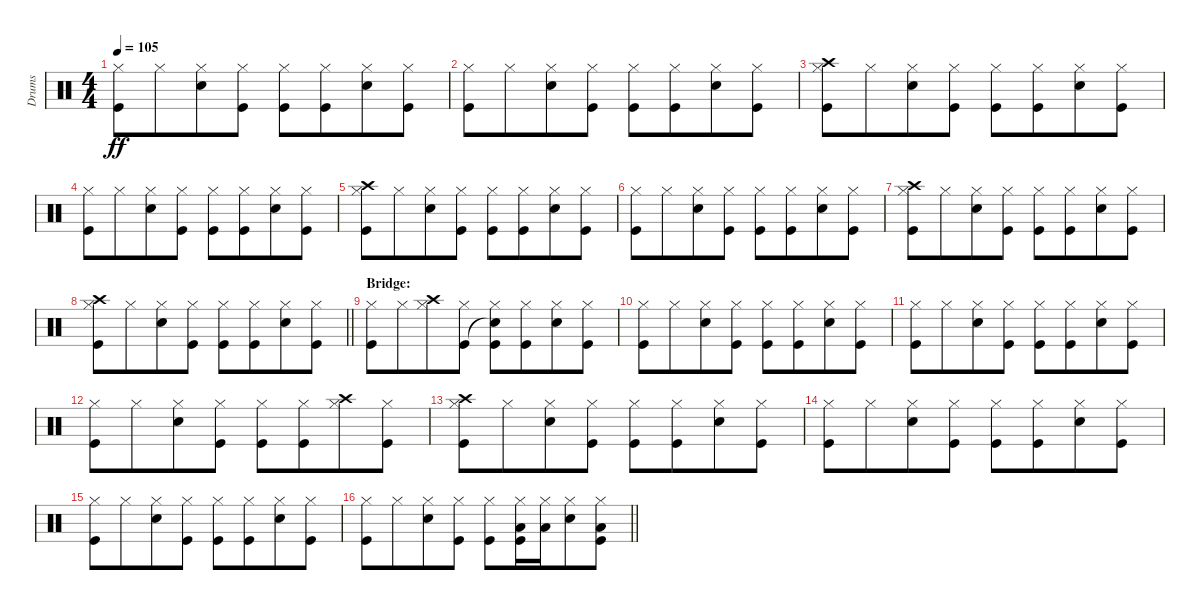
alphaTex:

\track ("Drums" "Drums") {instrument percussion}
\staff {score}
\articulation defaults
\ts (4 4)
\tempo 105
\clef neutral
\ks c
("Hi-Hat (closed)" "Kick (hit)").8{dy ff} "Hi-Hat (closed)".8{beam merge} ("Hi-Hat (closed)" "Snare (hit) 2").8 ("Hi-Hat (closed)" "Kick (hit)").8 ("Hi-Hat (closed)" "Kick (hit)").8 ("Hi-Hat (closed)" "Kick (hit)").8{beam merge} ("Hi-Hat (closed)" "Snare (hit) 2").8 ("Hi-Hat (closed)" "Kick (hit)").8 |
("Hi-Hat (closed)" "Kick (hit)").8 "Hi-Hat (closed)".8{beam merge} ("Hi-Hat (closed)" "Snare (hit) 2").8 ("Hi-Hat (closed)" "Kick (hit)").8 ("Hi-Hat (closed)" "Kick (hit)").8 ("Hi-Hat (closed)" "Kick (hit)").8{beam merge} ("Hi-Hat (closed)" "Snare (hit) 2").8 ("Hi-Hat (closed)" "Kick (hit)").8 |
("Hi-Hat (closed)" "Crash high (hit)" "Kick (hit)").8 "Hi-Hat (closed)".8{beam merge} ("Hi-Hat (closed)" "Snare (hit) 2").8 ("Hi-Hat (closed)" "Kick (hit)").8 ("Hi-Hat (closed)" "Kick (hit)").8 ("Hi-Hat (closed)" "Kick (hit)").8{beam merge} ("Hi-Hat (closed)" "Snare (hit) 2").8 ("Hi-Hat (closed)" "Kick (hit)").8 |
("Hi-Hat (closed)" "Kick (hit)").8 "Hi-Hat (closed)".8{beam merge} ("Hi-Hat (closed)" "Snare (hit) 2").8 ("Hi-Hat (closed)" "Kick (hit)").8 ("Hi-Hat (closed)" "Kick (hit)").8 ("Hi-Hat (closed)" "Kick (hit)").8{beam merge} ("Hi-Hat (closed)" "Snare (hit) 2").8 ("Hi-Hat (closed)" "Kick (hit)").8 |
("Hi-Hat (closed)" "Crash high (hit)" "Kick (hit)").8 "Hi-Hat (closed)".8{beam merge} ("Hi-Hat (closed)" "Snare (hit) 2").8 ("Hi-Hat (closed)" "Kick (hit)").8 ("Hi-Hat (closed)" "Kick (hit)").8 ("Hi-Hat (closed)" "Kick (hit)").8{beam merge} ("Hi-Hat (closed)" "Snare (hit) 2").8 ("Hi-Hat (closed)" "Kick (hit)").8 |
("Hi-Hat (closed)" "Kick (hit)").8 "Hi-Hat (closed)".8{beam merge} ("Hi-Hat (closed)" "Snare (hit) 2").8 ("Hi-Hat (closed)" "Kick (hit)").8 ("Hi-Hat (closed)" "Kick (hit)").8 ("Hi-Hat (closed)" "Kick (hit)").8{beam merge} ("Hi-Hat (closed)" "Snare (hit) 2").8 ("Hi-Hat (closed)" "Kick (hit)").8 |
("Hi-Hat (closed)" "Crash high (hit)" "Kick (hit)").8 "Hi-Hat (closed)".8{beam merge} ("Hi-Hat (closed)" "Snare (hit) 2").8 ("Hi-Hat (closed)" "Kick (hit)").8 ("Hi-Hat (closed)" "Kick (hit)").8 ("Hi-Hat (closed)" "Kick (hit)").8{beam merge} ("Hi-Hat (closed)" "Snare (hit) 2").8 ("Hi-Hat (closed)" "Kick (hit)").8 |
\barLineRight lightlight
("Hi-Hat (closed)" "Crash high (hit)" "Kick (hit)").8 "Hi-Hat (closed)".8{beam merge} ("Hi-Hat (closed)" "Snare (hit) 2").8 ("Hi-Hat (closed)" "Kick (hit)").8 ("Hi-Hat (closed)" "Kick (hit)").8 ("Hi-Hat (closed)" "Kick (hit)").8{beam merge} ("Hi-Hat (closed)" "Snare (hit) 2").8 ("Hi-Hat (closed)" "Kick (hit)").8 |
\section ("" "Bridge:")
("Hi-Hat (closed)" "Kick (hit)").8 "Hi-Hat (closed)".8{beam merge} ("Hi-Hat (closed)" "Crash high (hit)").8 ("Hi-Hat (closed)" "Kick (hit)").8 ("Hi-Hat (closed)" "Snare (hit)"{t} "Kick (hit)").8 ("Hi-Hat (closed)" "Kick (hit)").8{beam merge} ("Hi-Hat (closed)" "Snare (hit) 2").8 ("Hi-Hat (closed)" "Kick (hit)").8 |
("Hi-Hat (closed)" "Kick (hit)").8 "Hi-Hat (closed)".8{beam merge} ("Hi-Hat (closed)" "Snare (hit) 2").8 ("Hi-Hat (closed)" "Kick (hit)").8 ("Hi-Hat (closed)" "Kick (hit)").8 ("Hi-Hat (closed)" "Kick (hit)").8{beam merge} ("Hi-Hat (closed)" "Snare (hit) 2").8 ("Hi-Hat (closed)" "Kick (hit)").8 |
("Hi-Hat (closed)" "Kick (hit)").8 "Hi-Hat (closed)".8{beam merge} ("Hi-Hat (closed)" "Snare (hit) 2").8 ("Hi-Hat (closed)" "Kick (hit)").8 ("Hi-Hat (closed)" "Kick (hit)").8 ("Hi-Hat (closed)" "Kick (hit)").8{beam merge} ("Hi-Hat (closed)" "Snare (hit) 2").8 ("Hi-Hat (closed)" "Kick (hit)").8 |
("Hi-Hat (closed)" "Kick (hit)").8 "Hi-Hat (closed)".8{beam merge} ("Hi-Hat (closed)" "Snare (hit) 2").8 ("Hi-Hat (closed)" "Kick (hit)").8 ("Hi-Hat (closed)" "Kick (hit)").8 ("Hi-Hat (closed)" "Kick (hit)").8{beam merge} ("Hi-Hat (closed)" "Crash high (hit)").8 ("Hi-Hat (closed)" "Kick (hit)").8 |
("Hi-Hat (closed)" "Crash high (hit)" "Kick (hit)").8 "Hi-Hat (closed)".8{beam merge} ("Hi-Hat (closed)" "Snare (hit) 2").8 ("Hi-Hat (closed)" "Kick (hit)").8 ("Hi-Hat (closed)" "Kick (hit)").8 ("Hi-Hat (closed)" "Kick (hit)").8{beam merge} ("Hi-Hat (closed)" "Snare (hit) 2").8 ("Hi-Hat (closed)" "Kick (hit)").8 |
("Hi-Hat (closed)" "Kick (hit)").8 "Hi-Hat (closed)".8{beam merge} ("Hi-Hat (closed)" "Snare (hit) 2").8 ("Hi-Hat (closed)" "Kick (hit)").8 ("Hi-Hat (closed)" "Kick (hit)").8 ("Hi-Hat (closed)" "Kick (hit)").8{beam merge} ("Hi-Hat (closed)" "Snare (hit) 2").8 ("Hi-Hat (closed)" "Kick (hit)").8 |
("Hi-Hat (closed)" "Kick (hit)").8 "Hi-Hat (closed)".8{beam merge} ("Hi-Hat (closed)" "Snare (hit) 2").8 ("Hi-Hat (closed)" "Kick (hit)").8 ("Hi-Hat (closed)" "Kick (hit)").8 ("Hi-Hat (closed)" "Kick (hit)").8{beam merge} ("Hi-Hat (closed)" "Snare (hit) 2").8 ("Hi-Hat (closed)" "Kick (hit)").8 |
\barLineRight lightlight
("Hi-Hat (closed)" "Kick (hit)").8 "Hi-Hat (closed)".8{beam merge} ("Hi-Hat (closed)" "Snare (hit) 2").8 ("Hi-Hat (closed)" "Kick (hit)").8 ("Hi-Hat (closed)" "Kick (hit)").8 ("Hi-Hat (closed)" "Low Tom (hit)" "Kick (hit)").16 ("Hi-Hat (closed)" "Low Tom (hit)").16{beam merge} ("Hi-Hat (closed)" "Snare (hit) 2").8 ("Hi-Hat (closed)" "Low Tom (hit)" "Kick (hit)").8
